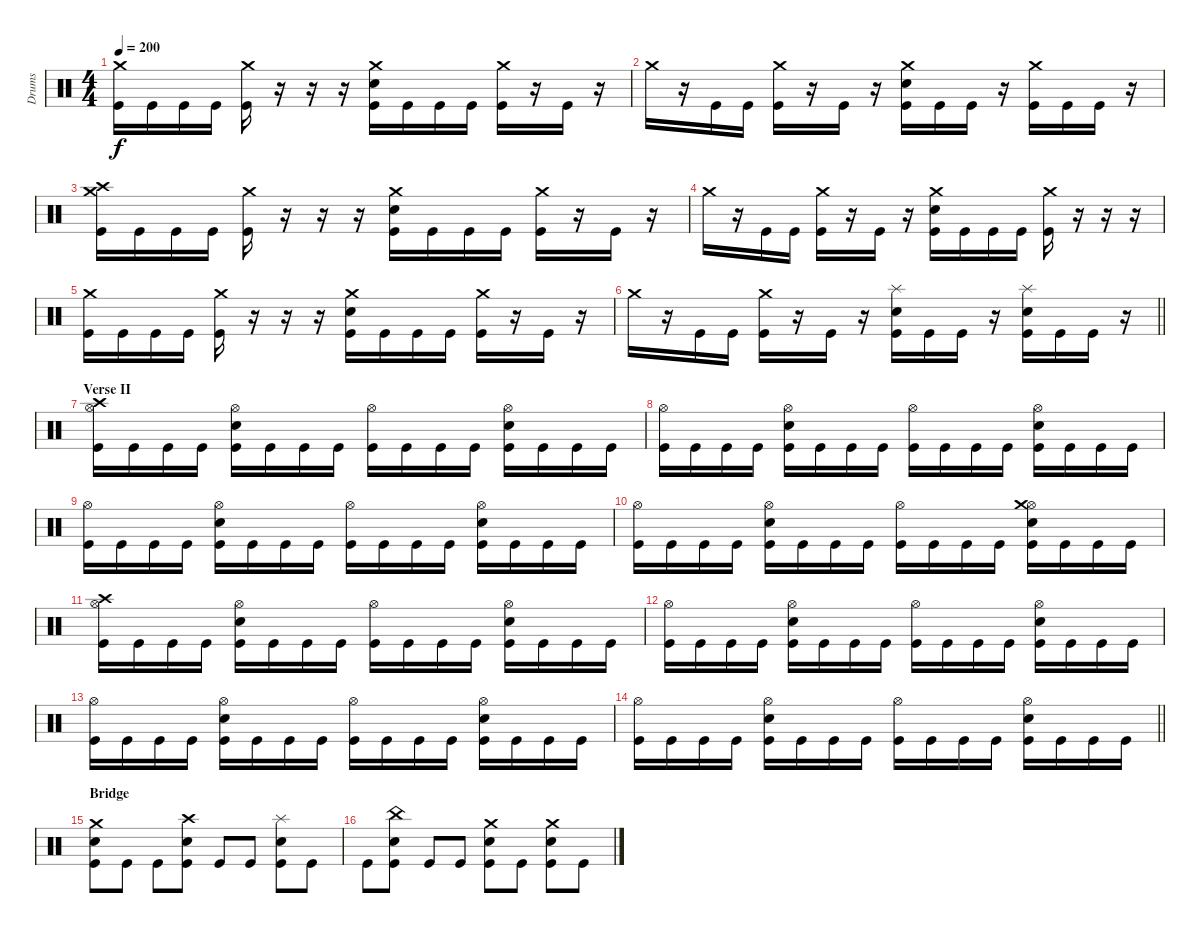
\track ("Drums" "Drums") {instrument percussion}
\staff {score}
\articulation defaults
\ts (4 4)
\tempo 200
\clef neutral
\ks c
("Crash medium (hit)" "Kick (hit)").16{dy f} "Kick (hit)".16 "Kick (hit)".16 "Kick (hit)".16 ("Crash medium (hit)" "Kick (hit)").16 r.16 r.16 r.16 ("Crash medium (hit)" "Electric Snare (hit)" "Kick (hit)").16 "Kick (hit)".16 "Kick (hit)".16 "Kick (hit)".16 ("Crash medium (hit)" "Kick (hit)").16 r.16 "Kick (hit)".16 r.16 |
"Crash medium (hit)".16 r.16 "Kick (hit)".16 "Kick (hit)".16 ("Crash medium (hit)" "Kick (hit)").16 r.16 "Kick (hit)".16 r.16 ("Crash medium (hit)" "Electric Snare (hit)" "Kick (hit)").16 "Kick (hit)".16 "Kick (hit)".16 r.16 ("Crash medium (hit)" "Kick (hit)").16 "Kick (hit)".16 "Kick (hit)".16 r.16 |
("Crash medium (hit)" "Crash high (hit)" "Kick (hit)").16 "Kick (hit)".16 "Kick (hit)".16 "Kick (hit)".16 ("Crash medium (hit)" "Kick (hit)").16 r.16 r.16 r.16 ("Crash medium (hit)" "Electric Snare (hit)" "Kick (hit)").16 "Kick (hit)".16 "Kick (hit)".16 "Kick (hit)".16 ("Crash medium (hit)" "Kick (hit)").16 r.16 "Kick (hit)".16 r.16 |
"Crash medium (hit)".16 r.16 "Kick (hit)".16 "Kick (hit)".16 ("Crash medium (hit)" "Kick (hit)").16 r.16 "Kick (hit)".16 r.16 ("Crash medium (hit)" "Electric Snare (hit)" "Kick (hit)").16 "Kick (hit)".16 "Kick (hit)".16 "Kick (hit)".16 ("Crash medium (hit)" "Kick (hit)").16 r.16 r.16 r.16 |
("Crash medium (hit)" "Kick (hit)").16 "Kick (hit)".16 "Kick (hit)".16 "Kick (hit)".16 ("Crash medium (hit)" "Kick (hit)").16 r.16 r.16 r.16 ("Crash medium (hit)" "Electric Snare (hit)" "Kick (hit)").16 "Kick (hit)".16 "Kick (hit)".16 "Kick (hit)".16 ("Crash medium (hit)" "Kick (hit)").16 r.16 "Kick (hit)".16 r.16 |
\barLineRight lightlight "Crash medium (hit)".16
r.16 "Kick (hit)".16 "Kick (hit)".16 ("Crash medium (hit)" "Kick (hit)").16 r.16 "Kick (hit)".16 r.16 ("Splash (hit)" "Electric Snare (hit)" "Kick (hit)").16 "Kick (hit)".16 "Kick (hit)".16 r.16 ("Splash (hit)" "Electric Snare (hit)" "Kick (hit)").16 "Kick (hit)".16 "Kick (hit)".16 r.16 |
\section ("" "Verse II")
("Hi-Hat (open)" "Crash high (hit)" "Kick (hit)").16 "Kick (hit)".16 "Kick (hit)".16 "Kick (hit)".16 ("Hi-Hat (open)" "Electric Snare (hit)" "Kick (hit)").16 "Kick (hit)".16 "Kick (hit)".16 "Kick (hit)".16 ("Hi-Hat (open)" "Kick (hit)").16 "Kick (hit)".16 "Kick (hit)".16 "Kick (hit)".16 ("Hi-Hat (open)" "Electric Snare (hit)" "Kick (hit)").16 "Kick (hit)".16 "Kick (hit)".16 "Kick (hit)".16 |
("Hi-Hat (open)" "Kick (hit)").16 "Kick (hit)".16 "Kick (hit)".16 "Kick (hit)".16 ("Hi-Hat (open)" "Electric Snare (hit)" "Kick (hit)").16 "Kick (hit)".16 "Kick (hit)".16 "Kick (hit)".16 ("Hi-Hat (open)" "Kick (hit)").16 "Kick (hit)".16 "Kick (hit)".16 "Kick (hit)".16 ("Hi-Hat (open)" "Electric Snare (hit)" "Kick (hit)").16 "Kick (hit)".16 "Kick (hit)".16 "Kick (hit)".16 |
("Hi-Hat (open)" "Kick (hit)").16 "Kick (hit)".16 "Kick (hit)".16 "Kick (hit)".16 ("Hi-Hat (open)" "Electric Snare (hit)" "Kick (hit)").16 "Kick (hit)".16 "Kick (hit)".16 "Kick (hit)".16 ("Hi-Hat (open)" "Kick (hit)").16 "Kick (hit)".16 "Kick (hit)".16 "Kick (hit)".16 ("Hi-Hat (open)" "Electric Snare (hit)" "Kick (hit)").16 "Kick (hit)".16 "Kick (hit)".16 "Kick (hit)".16 |
("Hi-Hat (open)" "Kick (hit)").16 "Kick (hit)".16 "Kick (hit)".16 "Kick (hit)".16 ("Hi-Hat (open)" "Electric Snare (hit)" "Kick (hit)").16 "Kick (hit)".16 "Kick (hit)".16 "Kick (hit)".16 ("Hi-Hat (open)" "Kick (hit)").16 "Kick (hit)".16 "Kick (hit)".16 "Kick (hit)".16 ("Hi-Hat (open)" "Crash medium (hit)" "Electric Snare (hit)" "Kick (hit)").16 "Kick (hit)".16 "Kick (hit)".16 "Kick (hit)".16 |
("Hi-Hat (open)" "Crash high (hit)" "Kick (hit)").16 "Kick (hit)".16 "Kick (hit)".16 "Kick (hit)".16 ("Hi-Hat (open)" "Electric Snare (hit)" "Kick (hit)").16 "Kick (hit)".16 "Kick (hit)".16 "Kick (hit)".16 ("Hi-Hat (open)" "Kick (hit)").16 "Kick (hit)".16 "Kick (hit)".16 "Kick (hit)".16 ("Hi-Hat (open)" "Electric Snare (hit)" "Kick (hit)").16 "Kick (hit)".16 "Kick (hit)".16 "Kick (hit)".16 |
("Hi-Hat (open)" "Kick (hit)").16 "Kick (hit)".16 "Kick (hit)".16 "Kick (hit)".16 ("Hi-Hat (open)" "Electric Snare (hit)" "Kick (hit)").16 "Kick (hit)".16 "Kick (hit)".16 "Kick (hit)".16 ("Hi-Hat (open)" "Kick (hit)").16 "Kick (hit)".16 "Kick (hit)".16 "Kick (hit)".16 ("Hi-Hat (open)" "Electric Snare (hit)" "Kick (hit)").16 "Kick (hit)".16 "Kick (hit)".16 "Kick (hit)".16 |
("Hi-Hat (open)" "Kick (hit)").16 "Kick (hit)".16 "Kick (hit)".16 "Kick (hit)".16 ("Hi-Hat (open)" "Electric Snare (hit)" "Kick (hit)").16 "Kick (hit)".16 "Kick (hit)".16 "Kick (hit)".16 ("Hi-Hat (open)" "Kick (hit)").16 "Kick (hit)".16 "Kick (hit)".16 "Kick (hit)".16 ("Hi-Hat (open)" "Electric Snare (hit)" "Kick (hit)").16 "Kick (hit)".16 "Kick (hit)".16 "Kick (hit)".16 |
\barLineRight lightlight
("Hi-Hat (open)" "Kick (hit)").16 "Kick (hit)".16 "Kick (hit)".16 "Kick (hit)".16 ("Hi-Hat (open)" "Electric Snare (hit)" "Kick (hit)").16 "Kick (hit)".16 "Kick (hit)".16 "Kick (hit)".16 ("Hi-Hat (open)" "Kick (hit)").16 "Kick (hit)".16 "Kick (hit)".16 "Kick (hit)".16 ("Hi-Hat (open)" "Electric Snare (hit)" "Kick (hit)").16 "Kick (hit)".16 "Kick (hit)".16 "Kick (hit)".16 |
\section ("" "Bridge")
("Crash medium (hit)" "Electric Snare (hit)" "Kick (hit)").8 "Kick (hit)".8 "Kick (hit)".8 ("Crash high (hit)" "Electric Snare (hit)" "Kick (hit)").8 "Kick (hit)".8 "Kick (hit)".8 ("Splash (hit)" "Electric Snare (hit)" "Kick (hit)").8 "Kick (hit)".8 |
"Kick (hit)".8 ("China (hit)" "Electric Snare (hit)" "Kick (hit)").8 "Kick (hit)".8 "Kick (hit)".8 ("Crash medium (hit)" "Electric Snare (hit)" "Kick (hit)").8 "Kick (hit)".8 ("Crash medium (hit)" "Electric Snare (hit)" "Kick (hit)").8 "Kick (hit)".8
